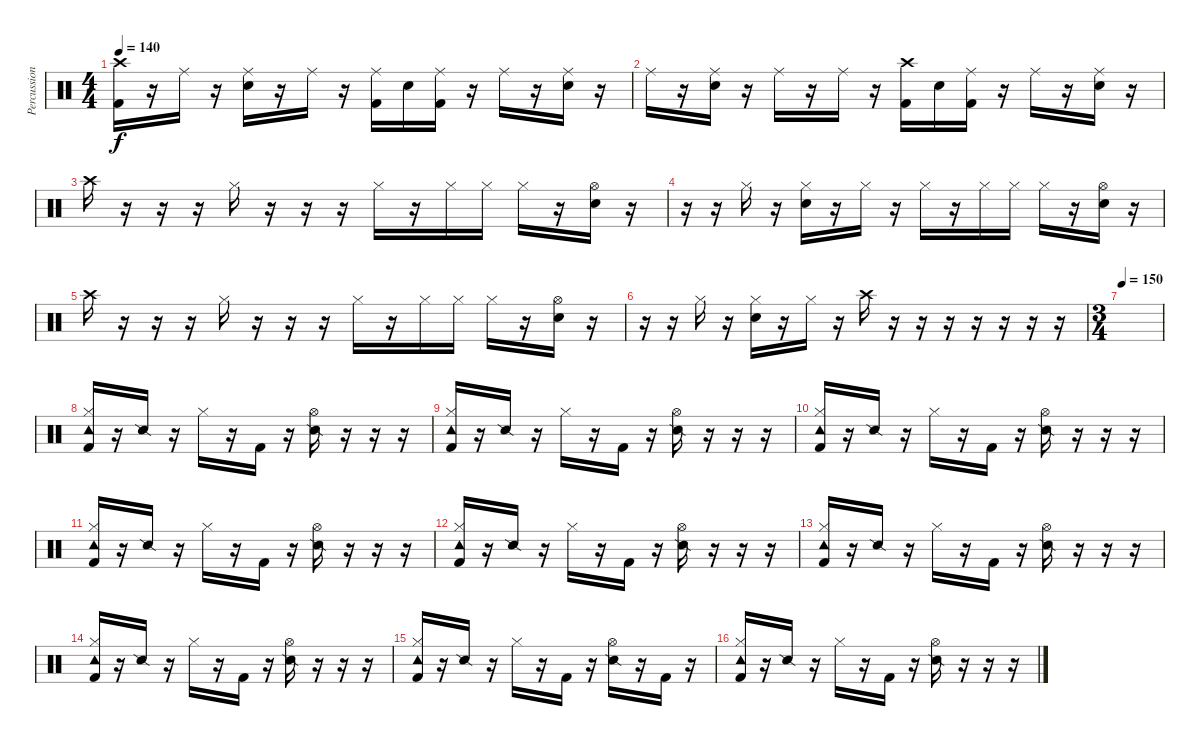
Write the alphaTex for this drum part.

\track ("Percussion" "Percussion") {instrument percussion}
\staff {score}
\articulation defaults
\ts (4 4)
\tempo 140
\clef neutral
\ks c
("Crash high (hit)" "Kick (hit) 2").16{dy f} r.16 "Ride (middle)".16 r.16 ("Ride (middle)" "Electric Snare (hit)").16 r.16 "Ride (middle)".16 r.16 ("Ride (middle)" "Kick (hit) 2").16 "Electric Snare (hit)".16 ("Ride (middle)" "Kick (hit) 2").16 r.16 "Ride (middle)".16 r.16 ("Ride (middle)" "Electric Snare (hit)").16 r.16 |
"Ride (middle)".16 r.16 ("Ride (middle)" "Electric Snare (hit)").16 r.16 "Ride (middle)".16 r.16 "Ride (middle)".16 r.16 ("Crash high (hit)" "Kick (hit) 2").16 "Electric Snare (hit)".16 ("Ride (middle)" "Kick (hit) 2").16 r.16 "Ride (middle)".16 r.16 ("Ride (middle)" "Electric Snare (hit)").16 r.16 |
"Crash high (hit)".16 r.16 r.16 r.16 "Hi-Hat (closed)".16 r.16 r.16 r.16 "Hi-Hat (closed)".16 r.16 "Hi-Hat (closed)".16 "Hi-Hat (closed)".16 "Hi-Hat (closed)".16 r.16 ("Hi-Hat (open)" "Electric Snare (hit)").16 r.16 |
r.16 r.16 "Hi-Hat (closed)".16 r.16 ("Hi-Hat (closed)" "Electric Snare (hit)").16 r.16 "Hi-Hat (closed)".16 r.16 "Hi-Hat (closed)".16 r.16 "Hi-Hat (closed)".16 "Hi-Hat (closed)".16 "Hi-Hat (closed)".16 r.16 ("Hi-Hat (open)" "Electric Snare (hit)").16 r.16 |
"Crash high (hit)".16 r.16 r.16 r.16 "Hi-Hat (closed)".16 r.16 r.16 r.16 "Hi-Hat (closed)".16 r.16 "Hi-Hat (closed)".16 "Hi-Hat (closed)".16 "Hi-Hat (closed)".16 r.16 ("Hi-Hat (open)" "Electric Snare (hit)").16 r.16 |
r.16 r.16 "Hi-Hat (closed)".16 r.16 ("Hi-Hat (closed)" "Electric Snare (hit)").16 r.16 "Hi-Hat (closed)".16 r.16 "Crash high (hit)".16 r.16 r.16 r.16 r.16 r.16 r.16 r.16 |
\ts (3 4)
\tempo 150
|
("Tambourine (hit)" "Hi-Hat (closed)" "Kick (hit) 2").16 r.16 "Snare (side stick) 2".16 r.16 "Hi-Hat (closed)".16 r.16 "Kick (hit) 2".16 r.16 ("Hi-Hat (open)" "Snare (side stick) 2").16 r.16 r.16 r.16 |
("Tambourine (hit)" "Hi-Hat (closed)" "Kick (hit) 2").16 r.16 "Snare (side stick) 2".16 r.16 "Hi-Hat (closed)".16 r.16 "Kick (hit) 2".16 r.16 ("Hi-Hat (open)" "Snare (side stick) 2").16 r.16 r.16 r.16 |
("Tambourine (hit)" "Hi-Hat (closed)" "Kick (hit) 2").16 r.16 "Snare (side stick) 2".16 r.16 "Hi-Hat (closed)".16 r.16 "Kick (hit) 2".16 r.16 ("Hi-Hat (open)" "Snare (side stick) 2").16 r.16 r.16 r.16 |
("Tambourine (hit)" "Hi-Hat (closed)" "Kick (hit) 2").16 r.16 "Snare (side stick) 2".16 r.16 "Hi-Hat (closed)".16 r.16 "Kick (hit) 2".16 r.16 ("Hi-Hat (open)" "Snare (side stick) 2").16 r.16 r.16 r.16 |
("Tambourine (hit)" "Hi-Hat (closed)" "Kick (hit) 2").16 r.16 "Snare (side stick) 2".16 r.16 "Hi-Hat (closed)".16 r.16 "Kick (hit) 2".16 r.16 ("Hi-Hat (open)" "Snare (side stick) 2").16 r.16 r.16 r.16 |
("Tambourine (hit)" "Hi-Hat (closed)" "Kick (hit) 2").16 r.16 "Snare (side stick) 2".16 r.16 "Hi-Hat (closed)".16 r.16 "Kick (hit) 2".16 r.16 ("Hi-Hat (open)" "Snare (side stick) 2").16 r.16 r.16 r.16 |
("Tambourine (hit)" "Hi-Hat (closed)" "Kick (hit) 2").16 r.16 "Snare (side stick) 2".16 r.16 "Hi-Hat (closed)".16 r.16 "Kick (hit) 2".16 r.16 ("Hi-Hat (open)" "Snare (side stick) 2").16 r.16 r.16 r.16 |
("Tambourine (hit)" "Hi-Hat (closed)" "Kick (hit) 2").16 r.16 "Snare (side stick) 2".16 r.16 "Hi-Hat (closed)".16 r.16 "Kick (hit) 2".16 r.16 ("Hi-Hat (open)" "Snare (side stick) 2").16 r.16 "Kick (hit) 2".16 r.16 |
("Tambourine (hit)" "Hi-Hat (closed)" "Kick (hit) 2").16 r.16 "Snare (side stick) 2".16 r.16 "Hi-Hat (closed)".16 r.16 "Kick (hit) 2".16 r.16 ("Hi-Hat (open)" "Snare (side stick) 2").16 r.16 r.16 r.16
